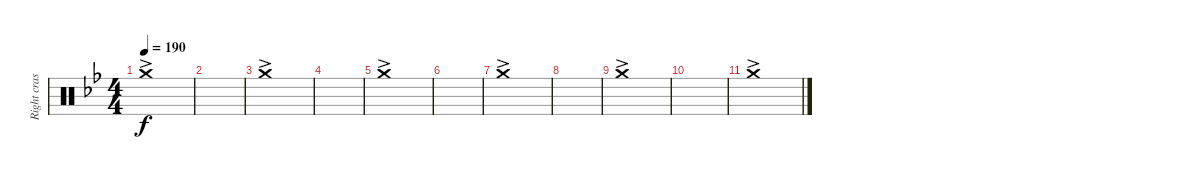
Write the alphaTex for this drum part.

\track ("Right crash" "Right cras") {instrument percussion}
\staff {score}
\articulation defaults
\ts (4 4)
\tempo 190
\clef neutral
\ks bb "Crash medium (hit)"{ac}.1{dy f}
|
|
"Crash medium (hit)"{ac}.1 |
|
"Crash medium (hit)"{ac}.1 |
|
"Crash medium (hit)"{ac}.1 |
|
"Crash medium (hit)"{ac}.1 |
|
"Crash medium (hit)"{ac}.1
